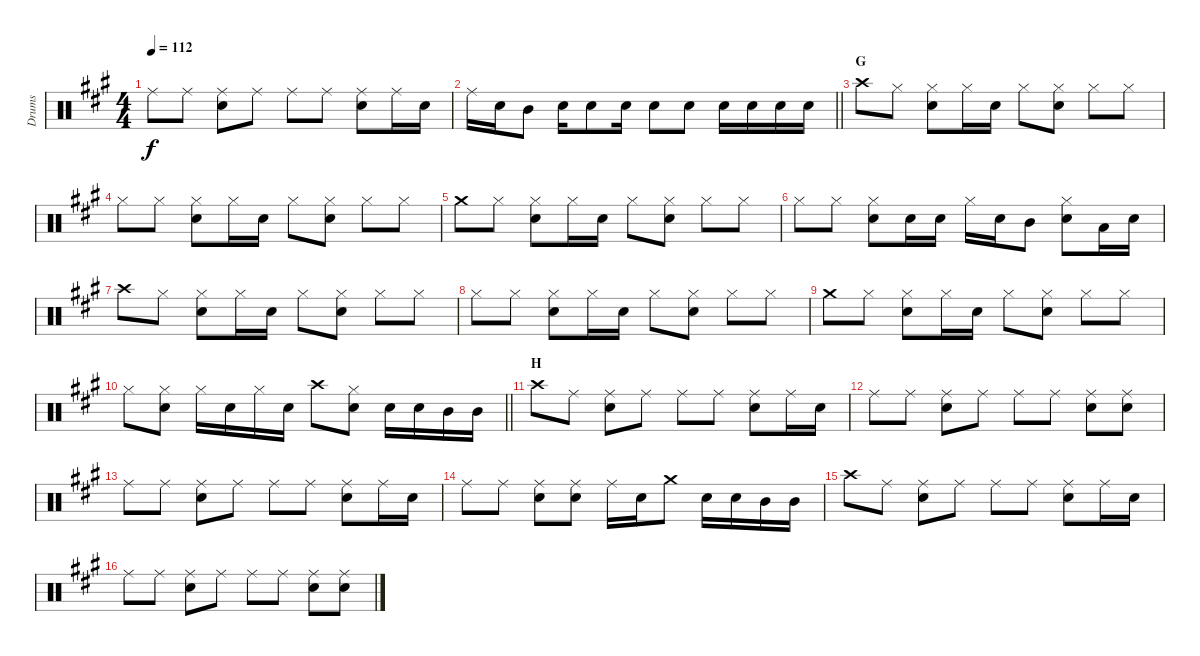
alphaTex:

\track ("Drums" "Drums") {instrument percussion}
\staff {score}
\articulation defaults
\ts (4 4)
\tempo 112
\clef neutral
\ks a "Ride (middle)".8{dy f} "Ride (middle)".8
("Ride (middle)" "Snare (hit) 2").8 "Ride (middle)".8 "Ride (middle)".8 "Ride (middle)".8 ("Ride (middle)" "Snare (hit) 2").8 "Ride (middle)".16 "Snare (hit) 2".16 |
\barLineRight lightlight "Ride (middle)".16 "Snare (hit) 2".16 "Mid Tom (hit)".8 "Snare (hit) 2".16 "Snare (hit) 2".8 "Snare (hit) 2".16 "Snare (hit) 2".8 "Snare (hit) 2".8 "Snare (hit) 2".16 "Snare (hit) 2".16 "Snare (hit) 2".16 "Snare (hit) 2".16
|
\section ("" "G")
"Crash high (hit)".8 "Hi-Hat (closed)".8 ("Hi-Hat (closed)" "Snare (hit) 2").8 "Hi-Hat (closed)".16 "Snare (hit) 2".16 "Hi-Hat (closed)".8 ("Hi-Hat (closed)" "Snare (hit) 2").8 "Hi-Hat (closed)".8 "Hi-Hat (closed)".8 |
"Hi-Hat (closed)".8 "Hi-Hat (closed)".8 ("Hi-Hat (closed)" "Snare (hit) 2").8 "Hi-Hat (closed)".16 "Snare (hit) 2".16 "Hi-Hat (closed)".8 ("Hi-Hat (closed)" "Snare (hit) 2").8 "Hi-Hat (closed)".8 "Hi-Hat (closed)".8 |
"Crash medium (hit)".8 "Hi-Hat (closed)".8 ("Hi-Hat (closed)" "Snare (hit) 2").8 "Hi-Hat (closed)".16 "Snare (hit) 2".16 "Hi-Hat (closed)".8 ("Hi-Hat (closed)" "Snare (hit) 2").8 "Hi-Hat (closed)".8 "Hi-Hat (closed)".8 |
"Hi-Hat (closed)".8 "Hi-Hat (closed)".8 ("Hi-Hat (closed)" "Snare (hit) 2").8 "Snare (hit) 2".16 "Snare (hit) 2".16 "Hi-Hat (closed)".16 "Snare (hit) 2".16 "Mid Tom (hit)".8 ("Hi-Hat (closed)" "Snare (hit) 2").8 "Low Tom (hit)".16 "Snare (hit) 2".16 |
"Crash high (hit)".8 "Hi-Hat (closed)".8 ("Hi-Hat (closed)" "Snare (hit) 2").8 "Hi-Hat (closed)".16 "Snare (hit) 2".16 "Hi-Hat (closed)".8 ("Hi-Hat (closed)" "Snare (hit) 2").8 "Hi-Hat (closed)".8 "Hi-Hat (closed)".8 |
"Hi-Hat (closed)".8 "Hi-Hat (closed)".8 ("Hi-Hat (closed)" "Snare (hit) 2").8 "Hi-Hat (closed)".16 "Snare (hit) 2".16 "Hi-Hat (closed)".8 ("Hi-Hat (closed)" "Snare (hit) 2").8 "Hi-Hat (closed)".8 "Hi-Hat (closed)".8 |
"Crash medium (hit)".8 "Hi-Hat (closed)".8 ("Hi-Hat (closed)" "Snare (hit) 2").8 "Hi-Hat (closed)".16 "Snare (hit) 2".16 "Hi-Hat (closed)".8 ("Hi-Hat (closed)" "Snare (hit) 2").8 "Hi-Hat (closed)".8 "Hi-Hat (closed)".8 |
\barLineRight lightlight "Hi-Hat (closed)".8
("Hi-Hat (closed)" "Snare (hit) 2").8 "Hi-Hat (closed)".16 "Snare (hit) 2".16 "Hi-Hat (closed)".16 "Snare (hit) 2".16 "Crash high (hit)".8 ("Hi-Hat (closed)" "Snare (hit) 2").8 "Snare (hit) 2".16 "Snare (hit) 2".16 "Mid Tom (hit)".16 "Mid Tom (hit)".16 |
\section ("" "H")
"Crash high (hit)".8 "Ride (middle)".8 ("Ride (middle)" "Snare (hit) 2").8 "Ride (middle)".8 "Ride (middle)".8 "Ride (middle)".8 ("Ride (middle)" "Snare (hit) 2").8 "Ride (middle)".16 "Snare (hit) 2".16 |
"Ride (middle)".8 "Ride (middle)".8 ("Ride (middle)" "Snare (hit) 2").8 "Ride (middle)".8 "Ride (middle)".8 "Ride (middle)".8 ("Ride (middle)" "Snare (hit) 2").8 ("Ride (middle)" "Snare (hit) 2").8 |
"Ride (middle)".8 "Ride (middle)".8 ("Ride (middle)" "Snare (hit) 2").8 "Ride (middle)".8 "Ride (middle)".8 "Ride (middle)".8 ("Ride (middle)" "Snare (hit) 2").8 "Ride (middle)".16 "Snare (hit) 2".16 |
"Ride (middle)".8 "Ride (middle)".8 ("Ride (middle)" "Snare (hit) 2").8 ("Ride (middle)" "Snare (hit) 2").8 "Ride (middle)".16 "Snare (hit) 2".16 "Crash medium (hit)".8 "Snare (hit) 2".16 "Snare (hit) 2".16 "Mid Tom (hit)".16 "Mid Tom (hit)".16 |
"Crash high (hit)".8 "Ride (middle)".8 ("Ride (middle)" "Snare (hit) 2").8 "Ride (middle)".8 "Ride (middle)".8 "Ride (middle)".8 ("Ride (middle)" "Snare (hit) 2").8 "Ride (middle)".16 "Snare (hit)".16 |
"Ride (middle)".8 "Ride (middle)".8 ("Ride (middle)" "Snare (hit) 2").8 "Ride (middle)".8 "Ride (middle)".8 "Ride (middle)".8 ("Ride (middle)" "Snare (hit) 2").8 ("Ride (middle)" "Snare (hit) 2").8
